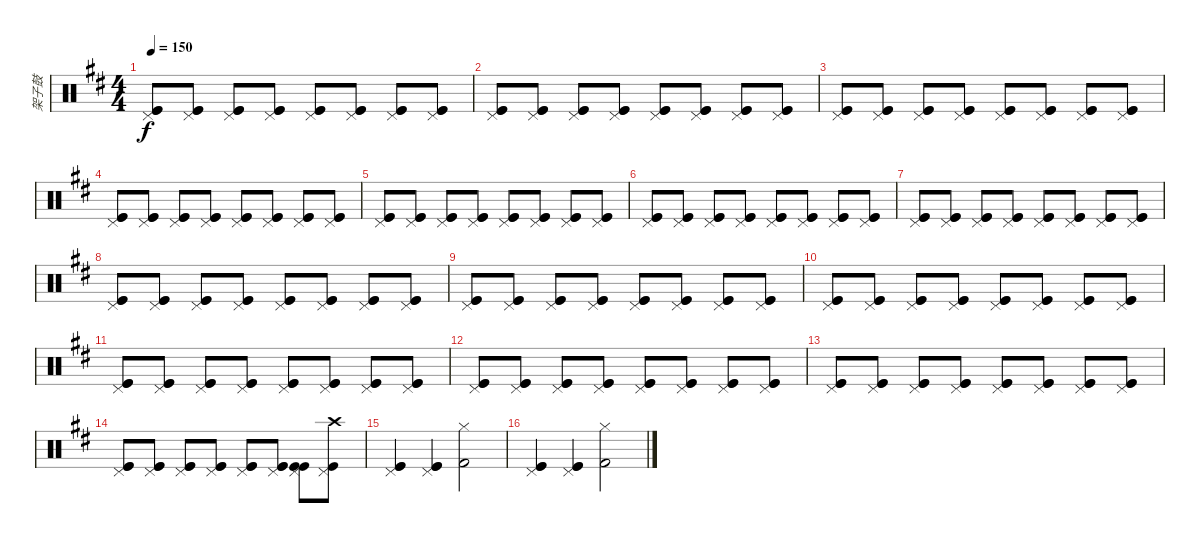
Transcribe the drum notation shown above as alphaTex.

\track ("架子鼓" "架子鼓") {instrument percussion}
\staff {score}
\articulation defaults
\ts (4 4)
\tempo 150
\clef neutral
\ks bminor
("Kick (hit)" "Kick (hit)" "Pedal Hi-Hat (hit)").8{dy f} ("Kick (hit)" "Kick (hit)" "Pedal Hi-Hat (hit)").8 ("Kick (hit)" "Kick (hit)" "Pedal Hi-Hat (hit)").8 ("Kick (hit)" "Kick (hit)" "Pedal Hi-Hat (hit)").8 ("Kick (hit)" "Kick (hit)" "Pedal Hi-Hat (hit)").8 ("Kick (hit)" "Kick (hit)" "Pedal Hi-Hat (hit)").8 ("Kick (hit)" "Kick (hit)" "Pedal Hi-Hat (hit)").8 ("Kick (hit)" "Kick (hit)" "Pedal Hi-Hat (hit)").8 |
("Kick (hit)" "Kick (hit)" "Pedal Hi-Hat (hit)").8 ("Kick (hit)" "Kick (hit)" "Pedal Hi-Hat (hit)").8 ("Kick (hit)" "Kick (hit)" "Pedal Hi-Hat (hit)").8 ("Kick (hit)" "Kick (hit)" "Pedal Hi-Hat (hit)").8 ("Kick (hit)" "Kick (hit)" "Pedal Hi-Hat (hit)").8 ("Kick (hit)" "Kick (hit)" "Pedal Hi-Hat (hit)").8 ("Kick (hit)" "Kick (hit)" "Pedal Hi-Hat (hit)").8 ("Kick (hit)" "Kick (hit)" "Pedal Hi-Hat (hit)").8 |
("Kick (hit)" "Kick (hit)" "Pedal Hi-Hat (hit)").8 ("Kick (hit)" "Kick (hit)" "Pedal Hi-Hat (hit)").8 ("Kick (hit)" "Kick (hit)" "Pedal Hi-Hat (hit)").8 ("Kick (hit)" "Kick (hit)" "Pedal Hi-Hat (hit)").8 ("Kick (hit)" "Kick (hit)" "Pedal Hi-Hat (hit)").8 ("Kick (hit)" "Kick (hit)" "Pedal Hi-Hat (hit)").8 ("Kick (hit)" "Kick (hit)" "Pedal Hi-Hat (hit)").8 ("Kick (hit)" "Kick (hit)" "Pedal Hi-Hat (hit)").8 |
("Kick (hit)" "Kick (hit)" "Pedal Hi-Hat (hit)").8 ("Kick (hit)" "Kick (hit)" "Pedal Hi-Hat (hit)").8 ("Kick (hit)" "Kick (hit)" "Pedal Hi-Hat (hit)").8 ("Kick (hit)" "Kick (hit)" "Pedal Hi-Hat (hit)").8 ("Kick (hit)" "Kick (hit)" "Pedal Hi-Hat (hit)").8 ("Kick (hit)" "Kick (hit)" "Pedal Hi-Hat (hit)").8 ("Kick (hit)" "Kick (hit)" "Pedal Hi-Hat (hit)").8 ("Kick (hit)" "Kick (hit)" "Pedal Hi-Hat (hit)").8 |
("Kick (hit)" "Kick (hit)" "Pedal Hi-Hat (hit)").8 ("Kick (hit)" "Kick (hit)" "Pedal Hi-Hat (hit)").8 ("Kick (hit)" "Kick (hit)" "Pedal Hi-Hat (hit)").8 ("Kick (hit)" "Kick (hit)" "Pedal Hi-Hat (hit)").8 ("Kick (hit)" "Kick (hit)" "Pedal Hi-Hat (hit)").8 ("Kick (hit)" "Kick (hit)" "Pedal Hi-Hat (hit)").8 ("Kick (hit)" "Kick (hit)" "Pedal Hi-Hat (hit)").8 ("Kick (hit)" "Kick (hit)" "Pedal Hi-Hat (hit)").8 |
("Kick (hit)" "Kick (hit)" "Pedal Hi-Hat (hit)").8 ("Kick (hit)" "Kick (hit)" "Pedal Hi-Hat (hit)").8 ("Kick (hit)" "Kick (hit)" "Pedal Hi-Hat (hit)").8 ("Kick (hit)" "Kick (hit)" "Pedal Hi-Hat (hit)").8 ("Kick (hit)" "Kick (hit)" "Pedal Hi-Hat (hit)").8 ("Kick (hit)" "Kick (hit)" "Pedal Hi-Hat (hit)").8 ("Kick (hit)" "Kick (hit)" "Pedal Hi-Hat (hit)").8 ("Kick (hit)" "Kick (hit)" "Pedal Hi-Hat (hit)").8 |
("Kick (hit)" "Kick (hit)" "Pedal Hi-Hat (hit)").8 ("Kick (hit)" "Kick (hit)" "Pedal Hi-Hat (hit)").8 ("Kick (hit)" "Kick (hit)" "Pedal Hi-Hat (hit)").8 ("Kick (hit)" "Kick (hit)" "Pedal Hi-Hat (hit)").8 ("Kick (hit)" "Kick (hit)" "Pedal Hi-Hat (hit)").8 ("Kick (hit)" "Kick (hit)" "Pedal Hi-Hat (hit)").8 ("Kick (hit)" "Kick (hit)" "Pedal Hi-Hat (hit)").8 ("Kick (hit)" "Kick (hit)" "Pedal Hi-Hat (hit)").8 |
("Kick (hit)" "Kick (hit)" "Pedal Hi-Hat (hit)").8 ("Kick (hit)" "Kick (hit)" "Pedal Hi-Hat (hit)").8 ("Kick (hit)" "Kick (hit)" "Pedal Hi-Hat (hit)").8 ("Kick (hit)" "Kick (hit)" "Pedal Hi-Hat (hit)").8 ("Kick (hit)" "Kick (hit)" "Pedal Hi-Hat (hit)").8 ("Kick (hit)" "Kick (hit)" "Pedal Hi-Hat (hit)").8 ("Kick (hit)" "Kick (hit)" "Pedal Hi-Hat (hit)").8 ("Kick (hit)" "Kick (hit)" "Pedal Hi-Hat (hit)").8 |
("Kick (hit)" "Kick (hit)" "Pedal Hi-Hat (hit)").8 ("Kick (hit)" "Kick (hit)" "Pedal Hi-Hat (hit)").8 ("Kick (hit)" "Kick (hit)" "Pedal Hi-Hat (hit)").8 ("Kick (hit)" "Kick (hit)" "Pedal Hi-Hat (hit)").8 ("Kick (hit)" "Kick (hit)" "Pedal Hi-Hat (hit)").8 ("Kick (hit)" "Kick (hit)" "Pedal Hi-Hat (hit)").8 ("Kick (hit)" "Kick (hit)" "Pedal Hi-Hat (hit)").8 ("Kick (hit)" "Kick (hit)" "Pedal Hi-Hat (hit)").8 |
("Kick (hit)" "Kick (hit)" "Pedal Hi-Hat (hit)").8 ("Kick (hit)" "Kick (hit)" "Pedal Hi-Hat (hit)").8 ("Kick (hit)" "Kick (hit)" "Pedal Hi-Hat (hit)").8 ("Kick (hit)" "Kick (hit)" "Pedal Hi-Hat (hit)").8 ("Kick (hit)" "Kick (hit)" "Pedal Hi-Hat (hit)").8 ("Kick (hit)" "Kick (hit)" "Pedal Hi-Hat (hit)").8 ("Kick (hit)" "Kick (hit)" "Pedal Hi-Hat (hit)").8 ("Kick (hit)" "Kick (hit)" "Pedal Hi-Hat (hit)").8 |
("Kick (hit)" "Kick (hit)" "Pedal Hi-Hat (hit)").8 ("Kick (hit)" "Kick (hit)" "Pedal Hi-Hat (hit)").8 ("Kick (hit)" "Kick (hit)" "Pedal Hi-Hat (hit)").8 ("Kick (hit)" "Kick (hit)" "Pedal Hi-Hat (hit)").8 ("Kick (hit)" "Kick (hit)" "Pedal Hi-Hat (hit)").8 ("Kick (hit)" "Kick (hit)" "Pedal Hi-Hat (hit)").8 ("Kick (hit)" "Kick (hit)" "Pedal Hi-Hat (hit)").8 ("Kick (hit)" "Kick (hit)" "Pedal Hi-Hat (hit)").8 |
("Kick (hit)" "Kick (hit)" "Pedal Hi-Hat (hit)").8 ("Kick (hit)" "Kick (hit)" "Pedal Hi-Hat (hit)").8 ("Kick (hit)" "Kick (hit)" "Pedal Hi-Hat (hit)").8 ("Kick (hit)" "Kick (hit)" "Pedal Hi-Hat (hit)").8 ("Kick (hit)" "Kick (hit)" "Pedal Hi-Hat (hit)").8 ("Kick (hit)" "Kick (hit)" "Pedal Hi-Hat (hit)").8 ("Kick (hit)" "Kick (hit)" "Pedal Hi-Hat (hit)").8 ("Kick (hit)" "Kick (hit)" "Pedal Hi-Hat (hit)").8 |
("Kick (hit)" "Kick (hit)" "Pedal Hi-Hat (hit)").8 ("Kick (hit)" "Kick (hit)" "Pedal Hi-Hat (hit)").8 ("Kick (hit)" "Kick (hit)" "Pedal Hi-Hat (hit)").8 ("Kick (hit)" "Kick (hit)" "Pedal Hi-Hat (hit)").8 ("Kick (hit)" "Kick (hit)" "Pedal Hi-Hat (hit)").8 ("Kick (hit)" "Kick (hit)" "Pedal Hi-Hat (hit)").8 ("Kick (hit)" "Kick (hit)" "Pedal Hi-Hat (hit)").8 ("Kick (hit)" "Kick (hit)" "Pedal Hi-Hat (hit)").8 |
("Kick (hit)" "Kick (hit)" "Pedal Hi-Hat (hit)").8 ("Kick (hit)" "Kick (hit)" "Pedal Hi-Hat (hit)").8 ("Kick (hit)" "Kick (hit)" "Pedal Hi-Hat (hit)").8 ("Kick (hit)" "Kick (hit)" "Pedal Hi-Hat (hit)").8 ("Kick (hit)" "Kick (hit)" "Pedal Hi-Hat (hit)").8 ("Kick (hit)" "Kick (hit)" "Pedal Hi-Hat (hit)").8 ("Kick (hit)" "Kick (hit)" "Pedal Hi-Hat (hit)").8 ("Crash high (hit)" "Kick (hit)" "Pedal Hi-Hat (hit)").8 |
("Kick (hit)" "Kick (hit)" "Pedal Hi-Hat (hit)").4 ("Kick (hit)" "Kick (hit)" "Pedal Hi-Hat (hit)").4 ("Kick (hit) 2" "Hi-Hat (closed)").2 |
("Kick (hit)" "Kick (hit)" "Pedal Hi-Hat (hit)").4 ("Kick (hit)" "Kick (hit)" "Pedal Hi-Hat (hit)").4 ("Kick (hit) 2" "Hi-Hat (closed)").2
